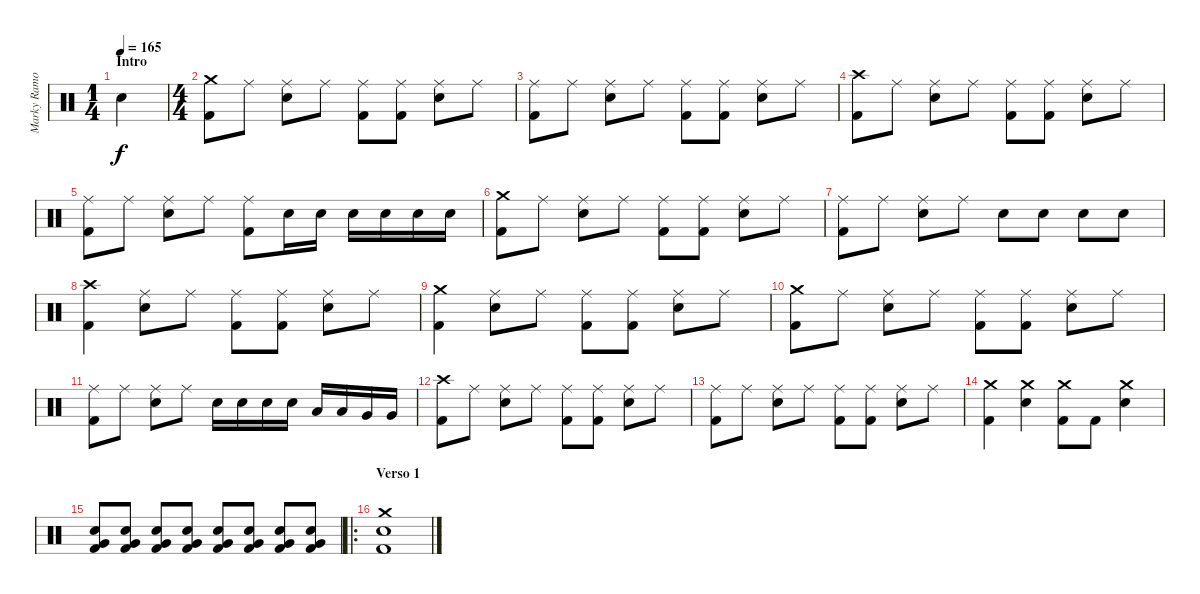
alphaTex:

\track ("Marky Ramone, o Próprio" "Marky Ramo") {instrument percussion}
\staff {score}
\articulation defaults
\ts (1 4)
\section ("" "Intro")
\tempo 165
\clef neutral
\ks c "Electric Snare (hit)".4{dy f}
|
\ts (4 4)
("Crash medium (hit)" "Kick (hit) 2").8 "Ride (middle)".8 ("Ride (middle)" "Electric Snare (hit)").8 "Ride (middle)".8 ("Ride (middle)" "Kick (hit) 2").8 ("Ride (middle)" "Kick (hit) 2").8 ("Ride (middle)" "Electric Snare (hit)").8 "Ride (middle)".8 |
("Ride (middle)" "Kick (hit) 2").8 "Ride (middle)".8 ("Ride (middle)" "Electric Snare (hit)").8 "Ride (middle)".8 ("Ride (middle)" "Kick (hit) 2").8 ("Ride (middle)" "Kick (hit) 2").8 ("Ride (middle)" "Electric Snare (hit)").8 "Ride (middle)".8 |
("Crash high (hit)" "Kick (hit) 2").8 "Ride (middle)".8 ("Ride (middle)" "Electric Snare (hit)").8 "Ride (middle)".8 ("Ride (middle)" "Kick (hit) 2").8 ("Ride (middle)" "Kick (hit) 2").8 ("Ride (middle)" "Electric Snare (hit)").8 "Ride (middle)".8 |
("Ride (middle)" "Kick (hit) 2").8 "Ride (middle)".8 ("Ride (middle)" "Electric Snare (hit)").8 "Ride (middle)".8 ("Ride (middle)" "Kick (hit) 2").8 "Electric Snare (hit)".16 "Electric Snare (hit)".16 "Electric Snare (hit)".16 "Electric Snare (hit)".16 "Electric Snare (hit)".16 "Electric Snare (hit)".16 |
("Crash medium (hit)" "Kick (hit) 2").8 "Ride (middle)".8 ("Ride (middle)" "Electric Snare (hit)").8 "Ride (middle)".8 ("Ride (middle)" "Kick (hit) 2").8 ("Ride (middle)" "Kick (hit) 2").8 ("Ride (middle)" "Electric Snare (hit)").8 "Ride (middle)".8 |
("Ride (middle)" "Kick (hit) 2").8 "Ride (middle)".8 ("Ride (middle)" "Electric Snare (hit)").8 "Ride (middle)".8 "Electric Snare (hit)".8 "Electric Snare (hit)".8 "Electric Snare (hit)".8 "Electric Snare (hit)".8 |
("Crash high (hit)" "Kick (hit) 2").4 ("Ride (middle)" "Electric Snare (hit)").8 "Ride (middle)".8 ("Ride (middle)" "Kick (hit) 2").8 ("Ride (middle)" "Kick (hit) 2").8 ("Ride (middle)" "Electric Snare (hit)").8 "Ride (middle)".8 |
("Crash medium (hit)" "Kick (hit) 2").4 ("Ride (middle)" "Electric Snare (hit)").8 "Ride (middle)".8 ("Ride (middle)" "Kick (hit) 2").8 ("Ride (middle)" "Kick (hit) 2").8 ("Ride (middle)" "Electric Snare (hit)").8 "Ride (middle)".8 |
("Crash medium (hit)" "Kick (hit) 2").8 "Ride (middle)".8 ("Ride (middle)" "Electric Snare (hit)").8 "Ride (middle)".8 ("Ride (middle)" "Kick (hit) 2").8 ("Ride (middle)" "Kick (hit) 2").8 ("Ride (middle)" "Electric Snare (hit)").8 "Ride (middle)".8 |
("Ride (middle)" "Kick (hit) 2").8 "Ride (middle)".8 ("Ride (middle)" "Electric Snare (hit)").8 "Ride (middle)".8 "Electric Snare (hit)".16 "Electric Snare (hit)".16 "Electric Snare (hit)".16 "Electric Snare (hit)".16 "Low Tom (hit)".16 "Low Tom (hit)".16 "Very Low Tom (hit)".16 "Very Low Tom (hit)".16 |
("Crash high (hit)" "Kick (hit) 2").8 "Ride (middle)".8 ("Ride (middle)" "Electric Snare (hit)").8 "Ride (middle)".8 ("Ride (middle)" "Kick (hit) 2").8 ("Ride (middle)" "Kick (hit) 2").8 ("Ride (middle)" "Electric Snare (hit)").8 "Ride (middle)".8 |
("Ride (middle)" "Kick (hit) 2").8 "Ride (middle)".8 ("Ride (middle)" "Electric Snare (hit)").8 "Ride (middle)".8 ("Ride (middle)" "Kick (hit) 2").8 ("Ride (middle)" "Kick (hit) 2").8 ("Ride (middle)" "Electric Snare (hit)").8 "Ride (middle)".8 |
("Crash medium (hit)" "Kick (hit) 2").4 ("Crash medium (hit)" "Electric Snare (hit)").4 ("Crash medium (hit)" "Kick (hit) 2").8 "Kick (hit) 2".8 ("Crash medium (hit)" "Electric Snare (hit)").4 |
("Electric Snare (hit)" "Very Low Tom (hit)" "Kick (hit) 2").8 ("Electric Snare (hit)" "Very Low Tom (hit)" "Kick (hit) 2").8 ("Electric Snare (hit)" "Very Low Tom (hit)" "Kick (hit) 2").8 ("Electric Snare (hit)" "Very Low Tom (hit)" "Kick (hit) 2").8 ("Electric Snare (hit)" "Very Low Tom (hit)" "Kick (hit) 2").8 ("Electric Snare (hit)" "Very Low Tom (hit)" "Kick (hit) 2").8 ("Electric Snare (hit)" "Very Low Tom (hit)" "Kick (hit) 2").8 ("Electric Snare (hit)" "Very Low Tom (hit)" "Kick (hit) 2").8 |
\ro
\section ("" "Verso 1")
("Crash medium (hit)" "Electric Snare (hit)" "Kick (hit) 2").1
